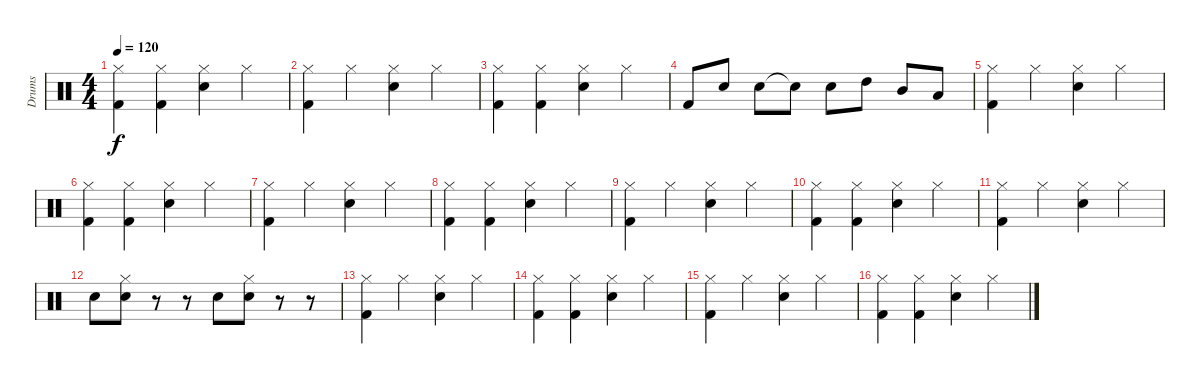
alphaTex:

\track ("Drums" "Drums") {instrument percussion}
\staff {score}
\articulation defaults
\ts (4 4)
\tempo 120
\clef neutral
\ks c
("Kick (hit) 2" "Hi-Hat (closed)").4{dy f} ("Kick (hit) 2" "Hi-Hat (closed)").4 ("Snare (hit) 2" "Hi-Hat (closed)").4 "Hi-Hat (closed)".4 |
("Kick (hit) 2" "Hi-Hat (closed)").4 "Hi-Hat (closed)".4 ("Snare (hit) 2" "Hi-Hat (closed)").4 "Hi-Hat (closed)".4 |
("Kick (hit) 2" "Hi-Hat (closed)").4 ("Kick (hit) 2" "Hi-Hat (closed)").4 ("Snare (hit) 2" "Hi-Hat (closed)").4 "Hi-Hat (closed)".4 |
"Kick (hit) 2".8 "Snare (hit) 2".8 "Snare (hit) 2".8 "Snare (hit)"{t}.8 "Snare (hit) 2".8 "High Tom (hit)".8 "Mid Tom (hit)".8 "Low Tom (hit)".8 |
("Kick (hit) 2" "Hi-Hat (closed)").4 "Hi-Hat (closed)".4 ("Snare (hit) 2" "Hi-Hat (closed)").4 "Hi-Hat (closed)".4 |
("Kick (hit) 2" "Hi-Hat (closed)").4 ("Kick (hit) 2" "Hi-Hat (closed)").4 ("Snare (hit) 2" "Hi-Hat (closed)").4 "Hi-Hat (closed)".4 |
("Kick (hit) 2" "Hi-Hat (closed)").4 "Hi-Hat (closed)".4 ("Snare (hit) 2" "Hi-Hat (closed)").4 "Hi-Hat (closed)".4 |
("Kick (hit) 2" "Hi-Hat (closed)").4 ("Kick (hit) 2" "Hi-Hat (closed)").4 ("Snare (hit) 2" "Hi-Hat (closed)").4 "Hi-Hat (closed)".4 |
("Kick (hit) 2" "Hi-Hat (closed)").4 "Hi-Hat (closed)".4 ("Snare (hit) 2" "Hi-Hat (closed)").4 "Hi-Hat (closed)".4 |
("Kick (hit) 2" "Hi-Hat (closed)").4 ("Kick (hit) 2" "Hi-Hat (closed)").4 ("Snare (hit) 2" "Hi-Hat (closed)").4 "Hi-Hat (closed)".4 |
("Kick (hit) 2" "Hi-Hat (closed)").4 "Hi-Hat (closed)".4 ("Snare (hit) 2" "Hi-Hat (closed)").4 "Hi-Hat (closed)".4 |
"Snare (hit) 2".8 ("Snare (hit) 2" "Hi-Hat (closed)").8 r.8 r.8 "Snare (hit) 2".8 ("Snare (hit) 2" "Hi-Hat (closed)").8 r.8 r.8 |
("Kick (hit) 2" "Hi-Hat (closed)").4 "Hi-Hat (closed)".4 ("Snare (hit) 2" "Hi-Hat (closed)").4 "Hi-Hat (closed)".4 |
("Kick (hit) 2" "Hi-Hat (closed)").4 ("Kick (hit) 2" "Hi-Hat (closed)").4 ("Snare (hit) 2" "Hi-Hat (closed)").4 "Hi-Hat (closed)".4 |
("Kick (hit) 2" "Hi-Hat (closed)").4 "Hi-Hat (closed)".4 ("Snare (hit) 2" "Hi-Hat (closed)").4 "Hi-Hat (closed)".4 |
("Kick (hit) 2" "Hi-Hat (closed)").4 ("Kick (hit) 2" "Hi-Hat (closed)").4 ("Snare (hit) 2" "Hi-Hat (closed)").4 "Hi-Hat (closed)".4
